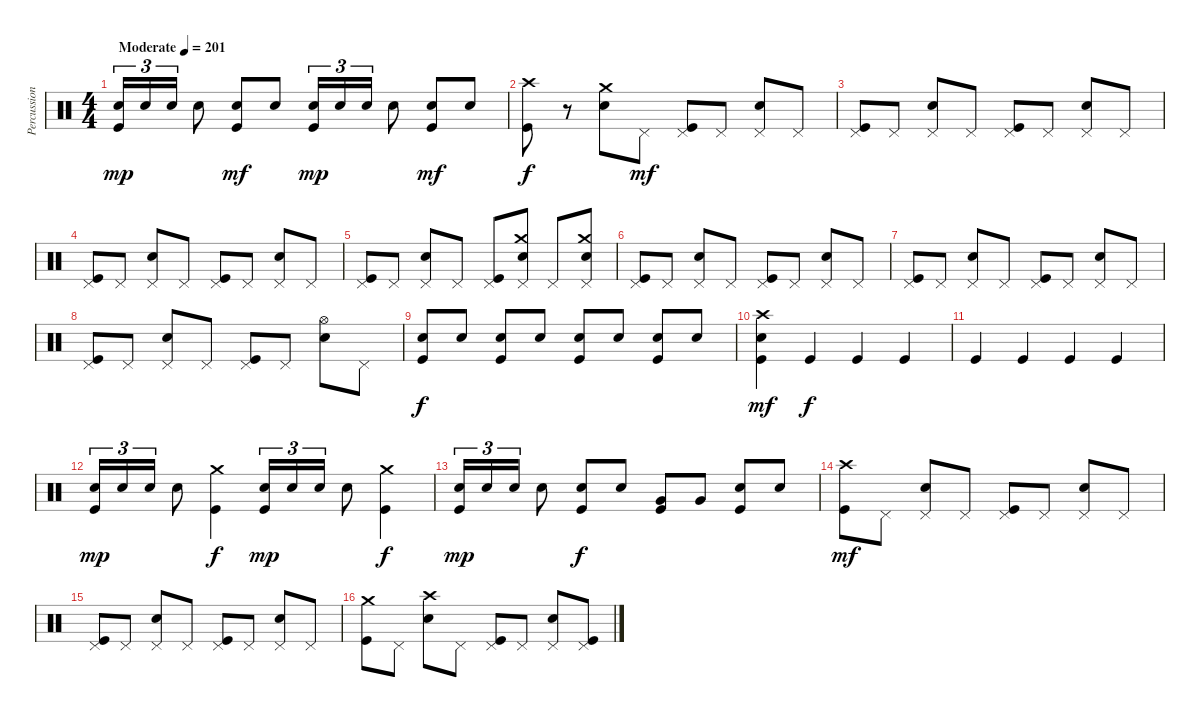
\track ("Percussion" "Percussion") {instrument percussion}
\staff {score}
\articulation defaults
\ts (4 4)
\tempo (201 "Moderate")
\clef neutral
\ks c
("Electric Snare (hit)" "Kick (hit)").16{tu (3 2) dy mp} "Electric Snare (hit)".16{tu (3 2)} "Electric Snare (hit)".16{tu (3 2)} "Electric Snare (hit)".8 ("Electric Snare (hit)" "Kick (hit)").8{dy mf} "Electric Snare (hit)".8 ("Electric Snare (hit)" "Kick (hit)").16{tu (3 2) dy mp} "Electric Snare (hit)".16{tu (3 2)} "Electric Snare (hit)".16{tu (3 2)} "Electric Snare (hit)".8 ("Electric Snare (hit)" "Kick (hit)").8{dy mf} "Electric Snare (hit)".8 |
("Crash high (hit)" "Kick (hit)").8{dy f} r.8 ("Crash medium (hit)" "Electric Snare (hit)").8 "Pedal Hi-Hat (hit)".8{dy mf} ("Pedal Hi-Hat (hit)" "Kick (hit)").8 "Pedal Hi-Hat (hit)".8 ("Pedal Hi-Hat (hit)" "Electric Snare (hit)").8 "Pedal Hi-Hat (hit)".8 |
("Pedal Hi-Hat (hit)" "Kick (hit)").8 "Pedal Hi-Hat (hit)".8 ("Pedal Hi-Hat (hit)" "Electric Snare (hit)").8 "Pedal Hi-Hat (hit)".8 ("Pedal Hi-Hat (hit)" "Kick (hit)").8 "Pedal Hi-Hat (hit)".8 ("Pedal Hi-Hat (hit)" "Electric Snare (hit)").8 "Pedal Hi-Hat (hit)".8 |
("Pedal Hi-Hat (hit)" "Kick (hit)").8 "Pedal Hi-Hat (hit)".8 ("Pedal Hi-Hat (hit)" "Electric Snare (hit)").8 "Pedal Hi-Hat (hit)".8 ("Pedal Hi-Hat (hit)" "Kick (hit)").8 "Pedal Hi-Hat (hit)".8 ("Pedal Hi-Hat (hit)" "Electric Snare (hit)").8 "Pedal Hi-Hat (hit)".8 |
("Pedal Hi-Hat (hit)" "Kick (hit)").8 "Pedal Hi-Hat (hit)".8 ("Pedal Hi-Hat (hit)" "Electric Snare (hit)").8 "Pedal Hi-Hat (hit)".8 ("Pedal Hi-Hat (hit)" "Kick (hit)").8 ("Crash medium (hit)" "Pedal Hi-Hat (hit)" "Electric Snare (hit)").8 "Pedal Hi-Hat (hit)".8 ("Crash medium (hit)" "Pedal Hi-Hat (hit)" "Electric Snare (hit)").8 |
("Pedal Hi-Hat (hit)" "Kick (hit)").8 "Pedal Hi-Hat (hit)".8 ("Pedal Hi-Hat (hit)" "Electric Snare (hit)").8 "Pedal Hi-Hat (hit)".8 ("Pedal Hi-Hat (hit)" "Kick (hit)").8 "Pedal Hi-Hat (hit)".8 ("Pedal Hi-Hat (hit)" "Electric Snare (hit)").8 "Pedal Hi-Hat (hit)".8 |
("Pedal Hi-Hat (hit)" "Kick (hit)").8 "Pedal Hi-Hat (hit)".8 ("Pedal Hi-Hat (hit)" "Electric Snare (hit)").8 "Pedal Hi-Hat (hit)".8 ("Pedal Hi-Hat (hit)" "Kick (hit)").8 "Pedal Hi-Hat (hit)".8 ("Pedal Hi-Hat (hit)" "Electric Snare (hit)").8 "Pedal Hi-Hat (hit)".8 |
("Pedal Hi-Hat (hit)" "Kick (hit)").8 "Pedal Hi-Hat (hit)".8 ("Pedal Hi-Hat (hit)" "Electric Snare (hit)").8 "Pedal Hi-Hat (hit)".8 ("Pedal Hi-Hat (hit)" "Kick (hit)").8 "Pedal Hi-Hat (hit)".8 ("Hi-Hat (open)" "Electric Snare (hit)").8 "Pedal Hi-Hat (hit)".8 |
("Electric Snare (hit)" "Kick (hit)").8{dy f} "Electric Snare (hit)".8 ("Electric Snare (hit)" "Kick (hit)").8 "Electric Snare (hit)".8 ("Electric Snare (hit)" "Kick (hit)").8 "Electric Snare (hit)".8 ("Electric Snare (hit)" "Kick (hit)").8 "Electric Snare (hit)".8 |
("Crash high (hit)" "Electric Snare (hit)" "Kick (hit)").4{dy mf} "Kick (hit)".4{dy f} "Kick (hit)".4 "Kick (hit)".4 |
"Kick (hit)".4 "Kick (hit)".4 "Kick (hit)".4 "Kick (hit)".4 |
("Electric Snare (hit)" "Kick (hit)").16{tu (3 2) dy mp} "Electric Snare (hit)".16{tu (3 2)} "Electric Snare (hit)".16{tu (3 2)} "Electric Snare (hit)".8 ("Crash medium (hit)" "Kick (hit)").4{dy f} ("Electric Snare (hit)" "Kick (hit)").16{tu (3 2) dy mp} "Electric Snare (hit)".16{tu (3 2)} "Electric Snare (hit)".16{tu (3 2)} "Electric Snare (hit)".8 ("Crash medium (hit)" "Kick (hit)").4{dy f} |
("Electric Snare (hit)" "Kick (hit)").16{tu (3 2) dy mp} "Electric Snare (hit)".16{tu (3 2)} "Electric Snare (hit)".16{tu (3 2)} "Electric Snare (hit)".8 ("Electric Snare (hit)" "Kick (hit)").8{dy f} "Electric Snare (hit)".8 ("Very Low Tom (hit)" "Kick (hit)").8 "Very Low Tom (hit)".8 ("Electric Snare (hit)" "Kick (hit)").8 "Electric Snare (hit)".8 |
("Crash high (hit)" "Kick (hit)").8{dy mf} "Pedal Hi-Hat (hit)".8 ("Pedal Hi-Hat (hit)" "Electric Snare (hit)").8 "Pedal Hi-Hat (hit)".8 ("Pedal Hi-Hat (hit)" "Kick (hit)").8 "Pedal Hi-Hat (hit)".8 ("Pedal Hi-Hat (hit)" "Electric Snare (hit)").8 "Pedal Hi-Hat (hit)".8 |
("Pedal Hi-Hat (hit)" "Kick (hit)").8 "Pedal Hi-Hat (hit)".8 ("Pedal Hi-Hat (hit)" "Electric Snare (hit)").8 "Pedal Hi-Hat (hit)".8 ("Pedal Hi-Hat (hit)" "Kick (hit)").8 "Pedal Hi-Hat (hit)".8 ("Pedal Hi-Hat (hit)" "Electric Snare (hit)").8 "Pedal Hi-Hat (hit)".8 |
("Crash medium (hit)" "Kick (hit)").8 "Pedal Hi-Hat (hit)".8 ("Crash high (hit)" "Electric Snare (hit)").8 "Pedal Hi-Hat (hit)".8 ("Pedal Hi-Hat (hit)" "Kick (hit)").8 "Pedal Hi-Hat (hit)".8 ("Pedal Hi-Hat (hit)" "Electric Snare (hit)").8 ("Pedal Hi-Hat (hit)" "Kick (hit)").8
